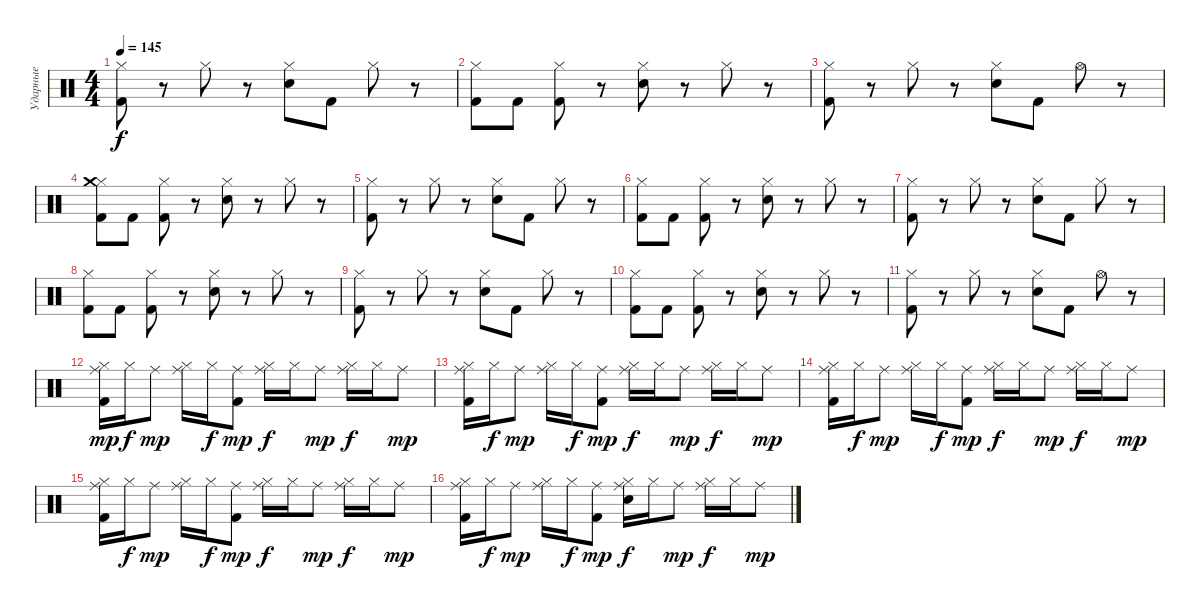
\track ("Ударные" "Ударные") {instrument percussion}
\staff {score}
\articulation defaults
\ts (4 4)
\tempo 145
\clef neutral
\ks c
("Hi-Hat (closed)" "Kick (hit) 2").8{dy f} r.8 "Hi-Hat (closed)".8 r.8 ("Hi-Hat (closed)" "Snare (hit) 2").8 "Kick (hit) 2".8 "Hi-Hat (closed)".8 r.8 |
("Hi-Hat (closed)" "Kick (hit) 2").8 "Kick (hit) 2".8 ("Hi-Hat (closed)" "Kick (hit) 2").8 r.8 ("Hi-Hat (closed)" "Snare (hit) 2").8 r.8 "Hi-Hat (closed)".8 r.8 |
("Hi-Hat (closed)" "Kick (hit) 2").8 r.8 "Hi-Hat (closed)".8 r.8 ("Hi-Hat (closed)" "Snare (hit) 2").8 "Kick (hit) 2".8 "Hi-Hat (open)".8 r.8 |
("Hi-Hat (closed)" "Crash medium (hit)" "Kick (hit) 2").8 "Kick (hit) 2".8 ("Hi-Hat (closed)" "Kick (hit) 2").8 r.8 ("Hi-Hat (closed)" "Snare (hit) 2").8 r.8 "Hi-Hat (closed)".8 r.8 |
("Hi-Hat (closed)" "Kick (hit) 2").8 r.8 "Hi-Hat (closed)".8 r.8 ("Hi-Hat (closed)" "Snare (hit) 2").8 "Kick (hit) 2".8 "Hi-Hat (closed)".8 r.8 |
("Hi-Hat (closed)" "Kick (hit) 2").8 "Kick (hit) 2".8 ("Hi-Hat (closed)" "Kick (hit) 2").8 r.8 ("Hi-Hat (closed)" "Snare (hit) 2").8 r.8 "Hi-Hat (closed)".8 r.8 |
("Hi-Hat (closed)" "Kick (hit) 2").8 r.8 "Hi-Hat (closed)".8 r.8 ("Hi-Hat (closed)" "Snare (hit) 2").8 "Kick (hit) 2".8 "Hi-Hat (closed)".8 r.8 |
("Hi-Hat (closed)" "Kick (hit) 2").8 "Kick (hit) 2".8 ("Hi-Hat (closed)" "Kick (hit) 2").8 r.8 ("Hi-Hat (closed)" "Snare (hit) 2").8 r.8 "Hi-Hat (closed)".8 r.8 |
("Hi-Hat (closed)" "Kick (hit) 2").8 r.8 "Hi-Hat (closed)".8 r.8 ("Hi-Hat (closed)" "Snare (hit) 2").8 "Kick (hit) 2".8 "Hi-Hat (closed)".8 r.8 |
("Hi-Hat (closed)" "Kick (hit) 2").8 "Kick (hit) 2".8 ("Hi-Hat (closed)" "Kick (hit) 2").8 r.8 ("Hi-Hat (closed)" "Snare (hit) 2").8 r.8 "Hi-Hat (closed)".8 r.8 |
("Hi-Hat (closed)" "Kick (hit) 2").8 r.8 "Hi-Hat (closed)".8 r.8 ("Hi-Hat (closed)" "Snare (hit) 2").8 "Kick (hit) 2".8 "Hi-Hat (open)".8 r.8 |
("Hi-Hat (closed)" "Ride (middle)" "Kick (hit) 2").16{dy mp} "Hi-Hat (closed)".16{dy f} "Ride (middle)".8{dy mp} ("Hi-Hat (closed)" "Ride (middle)").16 "Hi-Hat (closed)".16{dy f} ("Ride (middle)" "Kick (hit) 2").8{dy mp} ("Hi-Hat (closed)" "Ride (middle)").16{dy f} "Hi-Hat (closed)".16 "Ride (middle)".8{dy mp} ("Hi-Hat (closed)" "Ride (middle)").16{dy f} "Hi-Hat (closed)".16 "Ride (middle)".8{dy mp} |
("Hi-Hat (closed)" "Ride (middle)" "Kick (hit) 2").16 "Hi-Hat (closed)".16{dy f} "Ride (middle)".8{dy mp} ("Hi-Hat (closed)" "Ride (middle)").16 "Hi-Hat (closed)".16{dy f} ("Ride (middle)" "Kick (hit) 2").8{dy mp} ("Hi-Hat (closed)" "Ride (middle)").16{dy f} "Hi-Hat (closed)".16 "Ride (middle)".8{dy mp} ("Hi-Hat (closed)" "Ride (middle)").16{dy f} "Hi-Hat (closed)".16 "Ride (middle)".8{dy mp} |
("Hi-Hat (closed)" "Ride (middle)" "Kick (hit) 2").16 "Hi-Hat (closed)".16{dy f} "Ride (middle)".8{dy mp} ("Hi-Hat (closed)" "Ride (middle)").16 "Hi-Hat (closed)".16{dy f} ("Ride (middle)" "Kick (hit) 2").8{dy mp} ("Hi-Hat (closed)" "Ride (middle)").16{dy f} "Hi-Hat (closed)".16 "Ride (middle)".8{dy mp} ("Hi-Hat (closed)" "Ride (middle)").16{dy f} "Hi-Hat (closed)".16 "Ride (middle)".8{dy mp} |
("Hi-Hat (closed)" "Ride (middle)" "Kick (hit) 2").16 "Hi-Hat (closed)".16{dy f} "Ride (middle)".8{dy mp} ("Hi-Hat (closed)" "Ride (middle)").16 "Hi-Hat (closed)".16{dy f} ("Ride (middle)" "Kick (hit) 2").8{dy mp} ("Hi-Hat (closed)" "Ride (middle)").16{dy f} "Hi-Hat (closed)".16 "Ride (middle)".8{dy mp} ("Hi-Hat (closed)" "Ride (middle)").16{dy f} "Hi-Hat (closed)".16 "Ride (middle)".8{dy mp} |
("Hi-Hat (closed)" "Ride (middle)" "Kick (hit) 2").16 "Hi-Hat (closed)".16{dy f} "Ride (middle)".8{dy mp} ("Hi-Hat (closed)" "Ride (middle)").16 "Hi-Hat (closed)".16{dy f} ("Ride (middle)" "Kick (hit) 2").8{dy mp} ("Hi-Hat (closed)" "Ride (middle)" "Snare (hit) 2").16{dy f} "Hi-Hat (closed)".16 "Ride (middle)".8{dy mp} ("Hi-Hat (closed)" "Ride (middle)").16{dy f} "Hi-Hat (closed)".16 "Ride (middle)".8{dy mp}
